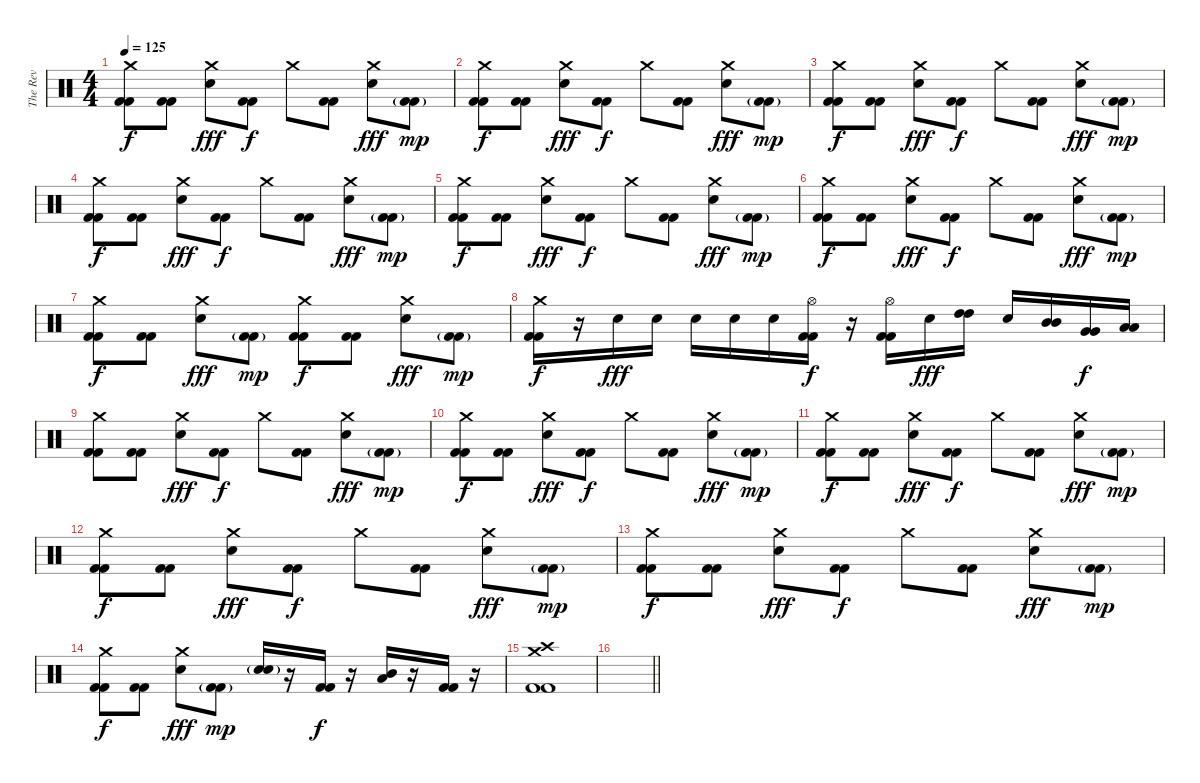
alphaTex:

\track ("The Rev" "The Rev") {instrument percussion}
\staff {score}
\articulation defaults
\ts (4 4)
\tempo 125
\clef neutral
\ks c
("Crash medium (hit)" "Kick (hit) 2" "Kick (hit) 2").8{dy f volume 15} ("Kick (hit) 2" "Kick (hit) 2").8 ("Crash medium (hit)" "Electric Snare (hit)").8{dy fff} ("Kick (hit) 2" "Kick (hit) 2").8{dy f} "Crash medium (hit)".8 ("Kick (hit) 2" "Kick (hit) 2").8 ("Crash medium (hit)" "Electric Snare (hit)").8{dy fff} ("Kick (hit) 2"{g} "Kick (hit) 2"{g}).8{dy mp} |
("Crash medium (hit)" "Kick (hit) 2" "Kick (hit) 2").8{dy f} ("Kick (hit) 2" "Kick (hit) 2").8 ("Crash medium (hit)" "Electric Snare (hit)").8{dy fff} ("Kick (hit) 2" "Kick (hit) 2").8{dy f} "Crash medium (hit)".8 ("Kick (hit) 2" "Kick (hit) 2").8 ("Crash medium (hit)" "Electric Snare (hit)").8{dy fff} ("Kick (hit) 2"{g} "Kick (hit) 2"{g}).8{dy mp} |
("Crash medium (hit)" "Kick (hit) 2" "Kick (hit) 2").8{dy f} ("Kick (hit) 2" "Kick (hit) 2").8 ("Crash medium (hit)" "Electric Snare (hit)").8{dy fff} ("Kick (hit) 2" "Kick (hit) 2").8{dy f} "Crash medium (hit)".8 ("Kick (hit) 2" "Kick (hit) 2").8 ("Crash medium (hit)" "Electric Snare (hit)").8{dy fff} ("Kick (hit) 2"{g} "Kick (hit) 2"{g}).8{dy mp} |
("Crash medium (hit)" "Kick (hit) 2" "Kick (hit) 2").8{dy f} ("Kick (hit) 2" "Kick (hit) 2").8 ("Crash medium (hit)" "Electric Snare (hit)").8{dy fff} ("Kick (hit) 2" "Kick (hit) 2").8{dy f} "Crash medium (hit)".8 ("Kick (hit) 2" "Kick (hit) 2").8 ("Crash medium (hit)" "Electric Snare (hit)").8{dy fff} ("Kick (hit) 2"{g} "Kick (hit) 2"{g}).8{dy mp} |
("Crash medium (hit)" "Kick (hit) 2" "Kick (hit) 2").8{dy f} ("Kick (hit) 2" "Kick (hit) 2").8 ("Crash medium (hit)" "Electric Snare (hit)").8{dy fff} ("Kick (hit) 2" "Kick (hit) 2").8{dy f} "Crash medium (hit)".8 ("Kick (hit) 2" "Kick (hit) 2").8 ("Crash medium (hit)" "Electric Snare (hit)").8{dy fff} ("Kick (hit) 2"{g} "Kick (hit) 2"{g}).8{dy mp} |
("Crash medium (hit)" "Kick (hit) 2" "Kick (hit) 2").8{dy f} ("Kick (hit) 2" "Kick (hit) 2").8 ("Crash medium (hit)" "Electric Snare (hit)").8{dy fff} ("Kick (hit) 2" "Kick (hit) 2").8{dy f} "Crash medium (hit)".8 ("Kick (hit) 2" "Kick (hit) 2").8 ("Crash medium (hit)" "Electric Snare (hit)").8{dy fff} ("Kick (hit) 2"{g} "Kick (hit) 2"{g}).8{dy mp} |
("Crash medium (hit)" "Kick (hit) 2" "Kick (hit) 2").8{dy f} ("Kick (hit) 2" "Kick (hit) 2").8 ("Crash medium (hit)" "Electric Snare (hit)").8{dy fff} ("Kick (hit) 2"{g} "Kick (hit) 2"{g}).8{dy mp} ("Crash medium (hit)" "Kick (hit) 2" "Kick (hit) 2").8{dy f} ("Kick (hit) 2" "Kick (hit) 2").8 ("Crash medium (hit)" "Electric Snare (hit)").8{dy fff} ("Kick (hit) 2"{g} "Kick (hit) 2"{g}).8{dy mp} |
("Crash medium (hit)" "Kick (hit) 2" "Kick (hit) 2").16{dy f} r.16 "Electric Snare (hit)".16{dy fff} "Electric Snare (hit)".16 "Electric Snare (hit)".16 "Electric Snare (hit)".16 "Electric Snare (hit)".16 ("Hi-Hat (open)" "Kick (hit) 2" "Kick (hit) 2").16{dy f} r.16 ("Hi-Hat (open)" "Kick (hit) 2" "Kick (hit) 2").16 "Electric Snare (hit)".16{dy fff} ("High Tom (hit)" "High Tom (hit)").16 "Electric Snare (hit)".16 ("Mid Tom (hit)" "Mid Tom (hit)").16 ("Very Low Tom (hit)" "Very Low Tom (hit)").16{dy f} ("Low Floor Tom (hit)" "Low Floor Tom (hit)").16 |
("Crash medium (hit)" "Kick (hit) 2" "Kick (hit) 2").8 ("Kick (hit) 2" "Kick (hit) 2").8 ("Crash medium (hit)" "Electric Snare (hit)").8{dy fff} ("Kick (hit) 2" "Kick (hit) 2").8{dy f} "Crash medium (hit)".8 ("Kick (hit) 2" "Kick (hit) 2").8 ("Crash medium (hit)" "Electric Snare (hit)").8{dy fff} ("Kick (hit) 2"{g} "Kick (hit) 2"{g}).8{dy mp} |
("Crash medium (hit)" "Kick (hit) 2" "Kick (hit) 2").8{dy f} ("Kick (hit) 2" "Kick (hit) 2").8 ("Crash medium (hit)" "Electric Snare (hit)").8{dy fff} ("Kick (hit) 2" "Kick (hit) 2").8{dy f} "Crash medium (hit)".8 ("Kick (hit) 2" "Kick (hit) 2").8 ("Crash medium (hit)" "Electric Snare (hit)").8{dy fff} ("Kick (hit) 2"{g} "Kick (hit) 2"{g}).8{dy mp} |
("Crash medium (hit)" "Kick (hit) 2" "Kick (hit) 2").8{dy f} ("Kick (hit) 2" "Kick (hit) 2").8 ("Crash medium (hit)" "Electric Snare (hit)").8{dy fff} ("Kick (hit) 2" "Kick (hit) 2").8{dy f} "Crash medium (hit)".8 ("Kick (hit) 2" "Kick (hit) 2").8 ("Crash medium (hit)" "Electric Snare (hit)").8{dy fff} ("Kick (hit) 2"{g} "Kick (hit) 2"{g}).8{dy mp} |
("Crash medium (hit)" "Kick (hit) 2" "Kick (hit) 2").8{dy f} ("Kick (hit) 2" "Kick (hit) 2").8 ("Crash medium (hit)" "Electric Snare (hit)").8{dy fff} ("Kick (hit) 2" "Kick (hit) 2").8{dy f} "Crash medium (hit)".8 ("Kick (hit) 2" "Kick (hit) 2").8 ("Crash medium (hit)" "Electric Snare (hit)").8{dy fff} ("Kick (hit) 2"{g} "Kick (hit) 2"{g}).8{dy mp} |
("Crash medium (hit)" "Kick (hit) 2" "Kick (hit) 2").8{dy f} ("Kick (hit) 2" "Kick (hit) 2").8 ("Crash medium (hit)" "Electric Snare (hit)").8{dy fff} ("Kick (hit) 2" "Kick (hit) 2").8{dy f} "Crash medium (hit)".8 ("Kick (hit) 2" "Kick (hit) 2").8 ("Crash medium (hit)" "Electric Snare (hit)").8{dy fff} ("Kick (hit) 2"{g} "Kick (hit) 2"{g}).8{dy mp} |
("Crash medium (hit)" "Kick (hit) 2" "Kick (hit) 2").8{dy f} ("Kick (hit) 2" "Kick (hit) 2").8 ("Crash medium (hit)" "Electric Snare (hit)").8{dy fff} ("Kick (hit) 2"{g} "Kick (hit) 2"{g}).8{dy mp} ("Electric Snare (hit)" "Electric Snare (hit)"{g}).16 r.16 ("Kick (hit) 2" "Kick (hit) 2").16{dy f} r.16 ("Mid Tom (hit)" "Low Floor Tom (hit)").16 r.16 ("Kick (hit) 2" "Kick (hit) 2").16 r.16 |
("Crash high (hit)" "Crash medium (hit)" "Kick (hit) 2" "Kick (hit) 2").1 |
\barLineRight lightlight
